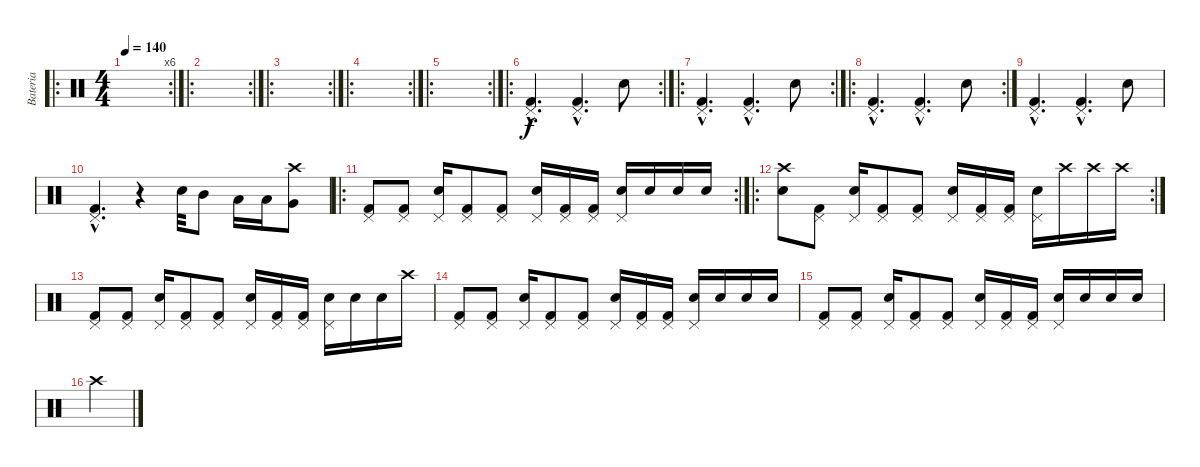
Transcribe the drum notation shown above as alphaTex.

\track ("Bateria" "Bateria") {instrument percussion}
\staff {score}
\articulation defaults
\ro
\rc 6
\ts (4 4)
\tempo 140
\clef neutral
\ks c
|
\ro
\rc 2
|
\ro
\rc 2
|
\ro
\rc 2
|
\ro
\rc 2
|
\ro
\rc 2
("Kick (hit) 2"{hac} "Pedal Hi-Hat (hit)"{hac}).4{d} ("Kick (hit) 2"{hac} "Pedal Hi-Hat (hit)"{hac}).4{d} "Snare (hit) 2".8 |
\ro
\rc 2
("Kick (hit) 2"{hac} "Pedal Hi-Hat (hit)"{hac}).4{d} ("Kick (hit) 2"{hac} "Pedal Hi-Hat (hit)"{hac}).4{d} "Snare (hit) 2".8 |
\ro
\rc 2
("Kick (hit) 2"{hac} "Pedal Hi-Hat (hit)"{hac}).4{d} ("Kick (hit) 2"{hac} "Pedal Hi-Hat (hit)"{hac}).4{d} "Snare (hit) 2".8 |
("Kick (hit) 2"{hac} "Pedal Hi-Hat (hit)"{hac}).4{d} ("Kick (hit) 2"{hac} "Pedal Hi-Hat (hit)"{hac}).4{d} "Snare (hit) 2".8 |
("Kick (hit) 2"{hac} "Pedal Hi-Hat (hit)"{hac}).4{d} r.4 "Snare (hit) 2".32 "Mid Tom (hit)".8 "Low Tom (hit)".16 "Low Tom (hit)".16 ("Crash high (hit)" "Very Low Tom (hit)").8 |
\ro
\rc 2
("Kick (hit) 2" "Pedal Hi-Hat (hit)").8 ("Kick (hit) 2" "Pedal Hi-Hat (hit)").8 ("Snare (hit) 2" "Pedal Hi-Hat (hit)").16 ("Kick (hit) 2" "Pedal Hi-Hat (hit)").8 ("Kick (hit) 2" "Pedal Hi-Hat (hit)").8 ("Snare (hit) 2" "Pedal Hi-Hat (hit)").16 ("Kick (hit) 2" "Pedal Hi-Hat (hit)").16 ("Kick (hit) 2" "Pedal Hi-Hat (hit)").16 ("Snare (hit) 2" "Pedal Hi-Hat (hit)").16 "Snare (hit) 2".16 "Snare (hit) 2".16 "Snare (hit) 2".16 |
\ro
\rc 2
("Snare (hit) 2" "Crash high (hit)").8 ("Kick (hit) 2" "Pedal Hi-Hat (hit)").8 ("Snare (hit) 2" "Pedal Hi-Hat (hit)").16 ("Kick (hit) 2" "Pedal Hi-Hat (hit)").8 ("Kick (hit) 2" "Pedal Hi-Hat (hit)").8 ("Snare (hit) 2" "Pedal Hi-Hat (hit)").16 ("Kick (hit) 2" "Pedal Hi-Hat (hit)").16 ("Kick (hit) 2" "Pedal Hi-Hat (hit)").16 ("Snare (hit) 2" "Pedal Hi-Hat (hit)").16 "Crash high (hit)".16 "Crash high (hit)".16 "Crash high (hit)".16 |
("Kick (hit) 2" "Pedal Hi-Hat (hit)").8 ("Kick (hit) 2" "Pedal Hi-Hat (hit)").8 ("Snare (hit) 2" "Pedal Hi-Hat (hit)").16 ("Kick (hit) 2" "Pedal Hi-Hat (hit)").8 ("Kick (hit) 2" "Pedal Hi-Hat (hit)").8 ("Snare (hit) 2" "Pedal Hi-Hat (hit)").16 ("Kick (hit) 2" "Pedal Hi-Hat (hit)").16 ("Kick (hit) 2" "Pedal Hi-Hat (hit)").16 ("Snare (hit) 2" "Pedal Hi-Hat (hit)").16 "Snare (hit) 2".16 "Snare (hit) 2".16 "Crash high (hit)".16 |
("Kick (hit) 2" "Pedal Hi-Hat (hit)").8 ("Kick (hit) 2" "Pedal Hi-Hat (hit)").8 ("Snare (hit) 2" "Pedal Hi-Hat (hit)").16 ("Kick (hit) 2" "Pedal Hi-Hat (hit)").8 ("Kick (hit) 2" "Pedal Hi-Hat (hit)").8 ("Snare (hit) 2" "Pedal Hi-Hat (hit)").16 ("Kick (hit) 2" "Pedal Hi-Hat (hit)").16 ("Kick (hit) 2" "Pedal Hi-Hat (hit)").16 ("Snare (hit) 2" "Pedal Hi-Hat (hit)").16 "Snare (hit) 2".16 "Snare (hit) 2".16 "Snare (hit) 2".16 |
("Kick (hit) 2" "Pedal Hi-Hat (hit)").8 ("Kick (hit) 2" "Pedal Hi-Hat (hit)").8 ("Snare (hit) 2" "Pedal Hi-Hat (hit)").16 ("Kick (hit) 2" "Pedal Hi-Hat (hit)").8 ("Kick (hit) 2" "Pedal Hi-Hat (hit)").8 ("Snare (hit) 2" "Pedal Hi-Hat (hit)").16 ("Kick (hit) 2" "Pedal Hi-Hat (hit)").16 ("Kick (hit) 2" "Pedal Hi-Hat (hit)").16 ("Snare (hit) 2" "Pedal Hi-Hat (hit)").16 "Snare (hit) 2".16 "Snare (hit) 2".16 "Snare (hit) 2".16 |
"Crash high (hit)".4
